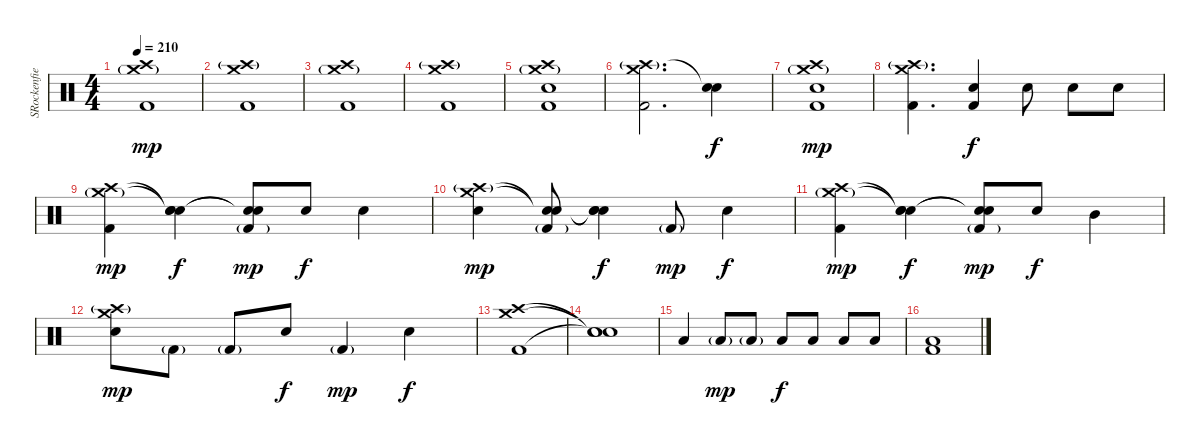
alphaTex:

\track ("SRockenfield" "SRockenfie") {instrument percussion}
\staff {score}
\articulation defaults
\ts (4 4)
\tempo 210
\clef neutral
\ks c
("Crash high (hit)" "Crash medium (hit)"{g} "Kick (hit) 2").1{dy mp} |
("Crash high (hit)"{g} "Crash medium (hit)" "Kick (hit) 2").1 |
("Crash high (hit)" "Crash medium (hit)"{g} "Kick (hit) 2").1 |
("Crash high (hit)"{g} "Crash medium (hit)" "Kick (hit) 2").1 |
("Crash high (hit)" "Crash medium (hit)"{g} "Electric Snare (hit)" "Kick (hit) 2").1 |
("Crash high (hit)"{g} "Crash medium (hit)" "Kick (hit) 2").2{d} ("Snare (hit)"{t} "Electric Snare (hit)").4{dy f} |
("Crash high (hit)" "Crash medium (hit)"{g} "Electric Snare (hit)" "Kick (hit) 2").1{dy mp} |
("Crash high (hit)"{g} "Crash medium (hit)" "Kick (hit) 2").4{d} ("Electric Snare (hit)" "Kick (hit) 2").4{dy f} "Electric Snare (hit)".8 "Electric Snare (hit)".8 "Electric Snare (hit)".8 |
("Crash high (hit)" "Crash medium (hit)"{g} "Kick (hit) 2").4{dy mp} ("Snare (hit)"{t} "Snare (hit)"{t} "Electric Snare (hit)").4{dy f} ("Snare (hit)"{t} "Snare (hit)"{t} "Kick (hit) 2"{g}).8{dy mp} "Electric Snare (hit)".8{dy f} "Electric Snare (hit)".4 |
("Crash high (hit)"{g} "Crash medium (hit)" "Electric Snare (hit)").4{dy mp} ("Snare (hit)"{t} "Snare (hit)"{t} "Kick (hit) 2"{g}).8 ("Snare (hit)"{t} "Snare (hit)"{t} "Electric Snare (hit)").4{dy f} "Kick (hit) 2"{g}.8{dy mp} "Electric Snare (hit)".4{dy f} |
("Crash high (hit)" "Crash medium (hit)"{g} "Kick (hit) 2").4{dy mp} ("Snare (hit)"{t} "Snare (hit)"{t} "Electric Snare (hit)").4{dy f} ("Snare (hit)"{t} "Snare (hit)"{t} "Kick (hit) 2"{g}).8{dy mp} "Electric Snare (hit)".8{dy f} "Mid Tom (hit)".4 |
("Crash high (hit)"{g} "Crash medium (hit)" "Electric Snare (hit)").8{dy mp} "Kick (hit) 2"{g}.8 "Kick (hit) 2"{g}.8 "Electric Snare (hit)".8{dy f} "Kick (hit) 2"{g}.4{dy mp} "Electric Snare (hit)".4{dy f} |
("Crash high (hit)" "Crash medium (hit)" "Kick (hit) 2").1 |
("Snare (hit)"{t} "Snare (hit)"{t} "Snare (hit)"{t}).1 |
"Low Floor Tom (hit)".4 "Low Floor Tom (hit)"{g}.8{dy mp} "Low Floor Tom (hit)"{g}.8 "Low Floor Tom (hit)".8{dy f} "Low Floor Tom (hit)".8 "Low Floor Tom (hit)".8 "Low Floor Tom (hit)".8 |
("Low Floor Tom (hit)" "Kick (hit) 2").1
